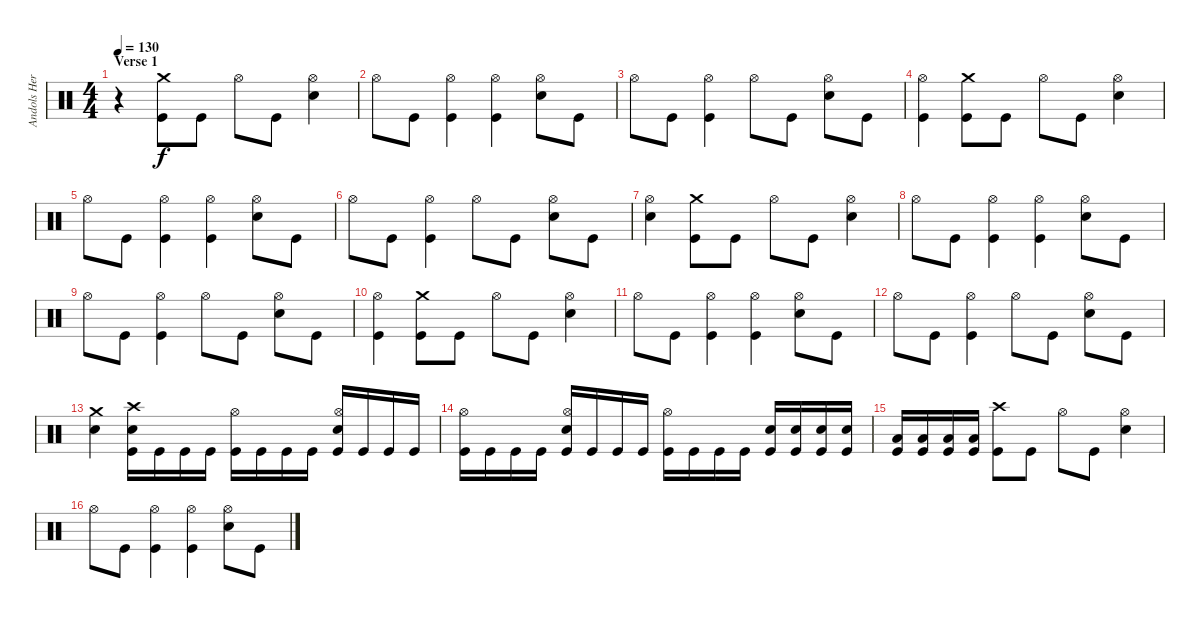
\track ("Andols Herrick" "Andols Her") {instrument percussion}
\staff {score}
\articulation defaults
\ts (4 4)
\section ("" "Verse 1")
\tempo 130
\clef neutral
\ks c
r.4{dy f} ("Crash medium (hit)" "Kick (hit)").8 "Kick (hit)".8 "Hi-Hat (open)".8 "Kick (hit)".8 ("Hi-Hat (open)" "Electric Snare (hit)").4 |
"Hi-Hat (open)".8 "Kick (hit)".8 ("Hi-Hat (open)" "Kick (hit)").4 ("Hi-Hat (open)" "Kick (hit)").4 ("Hi-Hat (open)" "Electric Snare (hit)").8 "Kick (hit)".8 |
"Hi-Hat (open)".8 "Kick (hit)".8 ("Hi-Hat (open)" "Kick (hit)").4 "Hi-Hat (open)".8 "Kick (hit)".8 ("Hi-Hat (open)" "Electric Snare (hit)").8 "Kick (hit)".8 |
("Hi-Hat (open)" "Kick (hit)").4 ("Crash medium (hit)" "Kick (hit)").8 "Kick (hit)".8 "Hi-Hat (open)".8 "Kick (hit)".8 ("Hi-Hat (open)" "Electric Snare (hit)").4 |
"Hi-Hat (open)".8 "Kick (hit)".8 ("Hi-Hat (open)" "Kick (hit)").4 ("Hi-Hat (open)" "Kick (hit)").4 ("Hi-Hat (open)" "Electric Snare (hit)").8 "Kick (hit)".8 |
"Hi-Hat (open)".8 "Kick (hit)".8 ("Hi-Hat (open)" "Kick (hit)").4 "Hi-Hat (open)".8 "Kick (hit)".8 ("Hi-Hat (open)" "Electric Snare (hit)").8 "Kick (hit)".8 |
("Hi-Hat (open)" "Electric Snare (hit)").4 ("Crash medium (hit)" "Kick (hit)").8 "Kick (hit)".8 "Hi-Hat (open)".8 "Kick (hit)".8 ("Hi-Hat (open)" "Electric Snare (hit)").4 |
"Hi-Hat (open)".8 "Kick (hit)".8 ("Hi-Hat (open)" "Kick (hit)").4 ("Hi-Hat (open)" "Kick (hit)").4 ("Hi-Hat (open)" "Electric Snare (hit)").8 "Kick (hit)".8 |
"Hi-Hat (open)".8 "Kick (hit)".8 ("Hi-Hat (open)" "Kick (hit)").4 "Hi-Hat (open)".8 "Kick (hit)".8 ("Hi-Hat (open)" "Electric Snare (hit)").8 "Kick (hit)".8 |
("Hi-Hat (open)" "Kick (hit)").4 ("Crash medium (hit)" "Kick (hit)").8 "Kick (hit)".8 "Hi-Hat (open)".8 "Kick (hit)".8 ("Hi-Hat (open)" "Electric Snare (hit)").4 |
"Hi-Hat (open)".8 "Kick (hit)".8 ("Hi-Hat (open)" "Kick (hit)").4 ("Hi-Hat (open)" "Kick (hit)").4 ("Hi-Hat (open)" "Electric Snare (hit)").8 "Kick (hit)".8 |
"Hi-Hat (open)".8 "Kick (hit)".8 ("Hi-Hat (open)" "Kick (hit)").4 "Hi-Hat (open)".8 "Kick (hit)".8 ("Hi-Hat (open)" "Electric Snare (hit)").8 "Kick (hit)".8 |
("Crash medium (hit)" "Electric Snare (hit)").4 ("Crash high (hit)" "Electric Snare (hit)" "Kick (hit)").16 "Kick (hit)".16 "Kick (hit)".16 "Kick (hit)".16 ("Hi-Hat (open)" "Kick (hit)").16 "Kick (hit)".16 "Kick (hit)".16 "Kick (hit)".16 ("Hi-Hat (open)" "Electric Snare (hit)" "Kick (hit)").16 "Kick (hit)".16 "Kick (hit)".16 "Kick (hit)".16 |
("Hi-Hat (open)" "Kick (hit)").16 "Kick (hit)".16 "Kick (hit)".16 "Kick (hit)".16 ("Hi-Hat (open)" "Electric Snare (hit)" "Kick (hit)").16 "Kick (hit)".16 "Kick (hit)".16 "Kick (hit)".16 ("Hi-Hat (open)" "Kick (hit)").16 "Kick (hit)".16 "Kick (hit)".16 "Kick (hit)".16 ("Electric Snare (hit)" "Kick (hit)").16 ("Electric Snare (hit)" "Kick (hit)").16 ("Electric Snare (hit)" "Kick (hit)").16 ("Electric Snare (hit)" "Kick (hit)").16 |
("Low Tom (hit)" "Kick (hit)").16 ("Low Tom (hit)" "Kick (hit)").16 ("Low Floor Tom (hit)" "Kick (hit)").16 ("Low Floor Tom (hit)" "Kick (hit)").16 ("Crash high (hit)" "Kick (hit)").8 "Kick (hit)".8 "Hi-Hat (open)".8 "Kick (hit)".8 ("Hi-Hat (open)" "Electric Snare (hit)").4 |
"Hi-Hat (open)".8 "Kick (hit)".8 ("Hi-Hat (open)" "Kick (hit)").4 ("Hi-Hat (open)" "Kick (hit)").4 ("Hi-Hat (open)" "Electric Snare (hit)").8 "Kick (hit)".8
